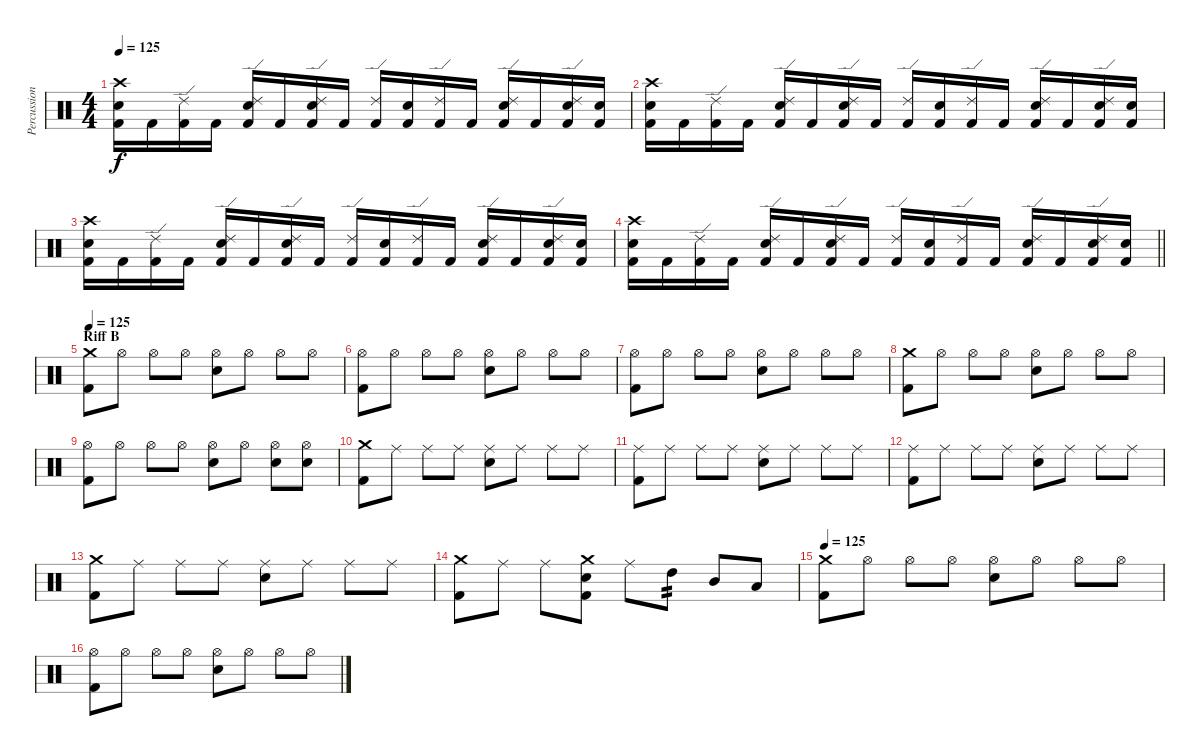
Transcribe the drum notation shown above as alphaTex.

\track ("Percussion" "Percussion") {instrument percussion}
\staff {score}
\articulation defaults
\ts (4 4)
\tempo 125
\clef neutral
\ks c
("Crash high (hit)" "Snare (hit) 2" "Kick (hit) 2").16{dy f} "Kick (hit) 2".16 ("Ride (edge) 2" "Kick (hit) 2").16 "Kick (hit) 2".16 ("Ride (edge) 2" "Snare (hit) 2" "Kick (hit) 2").16 "Kick (hit) 2".16 ("Ride (edge) 2" "Snare (hit) 2" "Kick (hit) 2").16 "Kick (hit) 2".16 ("Ride (edge) 2" "Kick (hit) 2").16 ("Snare (hit) 2" "Kick (hit) 2").16 ("Ride (edge) 2" "Kick (hit) 2").16 "Kick (hit) 2".16 ("Ride (edge) 2" "Snare (hit) 2" "Kick (hit) 2").16 "Kick (hit) 2".16 ("Ride (edge) 2" "Snare (hit) 2" "Kick (hit) 2").16 ("Snare (hit) 2" "Kick (hit) 2").16 |
("Crash high (hit)" "Snare (hit) 2" "Kick (hit) 2").16 "Kick (hit) 2".16 ("Ride (edge) 2" "Kick (hit) 2").16 "Kick (hit) 2".16 ("Ride (edge) 2" "Snare (hit) 2" "Kick (hit) 2").16 "Kick (hit) 2".16 ("Ride (edge) 2" "Snare (hit) 2" "Kick (hit) 2").16 "Kick (hit) 2".16 ("Ride (edge) 2" "Kick (hit) 2").16 ("Snare (hit) 2" "Kick (hit) 2").16 ("Ride (edge) 2" "Kick (hit) 2").16 "Kick (hit) 2".16 ("Ride (edge) 2" "Snare (hit) 2" "Kick (hit) 2").16 "Kick (hit) 2".16 ("Ride (edge) 2" "Snare (hit) 2" "Kick (hit) 2").16 ("Snare (hit) 2" "Kick (hit) 2").16 |
("Crash high (hit)" "Snare (hit) 2" "Kick (hit) 2").16 "Kick (hit) 2".16 ("Ride (edge) 2" "Kick (hit) 2").16 "Kick (hit) 2".16 ("Ride (edge) 2" "Snare (hit) 2" "Kick (hit) 2").16 "Kick (hit) 2".16 ("Ride (edge) 2" "Snare (hit) 2" "Kick (hit) 2").16 "Kick (hit) 2".16 ("Ride (edge) 2" "Kick (hit) 2").16 ("Snare (hit) 2" "Kick (hit) 2").16 ("Ride (edge) 2" "Kick (hit) 2").16 "Kick (hit) 2".16 ("Ride (edge) 2" "Snare (hit) 2" "Kick (hit) 2").16 "Kick (hit) 2".16 ("Ride (edge) 2" "Snare (hit) 2" "Kick (hit) 2").16 ("Snare (hit) 2" "Kick (hit) 2").16 |
\barLineRight lightlight
("Crash high (hit)" "Snare (hit) 2" "Kick (hit) 2").16 "Kick (hit) 2".16 ("Ride (edge) 2" "Kick (hit) 2").16 "Kick (hit) 2".16 ("Ride (edge) 2" "Snare (hit) 2" "Kick (hit) 2").16 "Kick (hit) 2".16 ("Ride (edge) 2" "Snare (hit) 2" "Kick (hit) 2").16 "Kick (hit) 2".16 ("Ride (edge) 2" "Kick (hit) 2").16 ("Snare (hit) 2" "Kick (hit) 2").16 ("Ride (edge) 2" "Kick (hit) 2").16 "Kick (hit) 2".16 ("Ride (edge) 2" "Snare (hit) 2" "Kick (hit) 2").16 "Kick (hit) 2".16 ("Ride (edge) 2" "Snare (hit) 2" "Kick (hit) 2").16 ("Snare (hit) 2" "Kick (hit) 2").16 |
\section ("" "Riff B")
\tempo 125
("Crash medium (hit)" "Kick (hit) 2").8 "Hi-Hat (open)".8 "Hi-Hat (open)".8 "Hi-Hat (open)".8 ("Hi-Hat (open)" "Snare (hit) 2").8 "Hi-Hat (open)".8 "Hi-Hat (open)".8 "Hi-Hat (open)".8 |
("Hi-Hat (open)" "Kick (hit) 2").8 "Hi-Hat (open)".8 "Hi-Hat (open)".8 "Hi-Hat (open)".8 ("Hi-Hat (open)" "Snare (hit) 2").8 "Hi-Hat (open)".8 "Hi-Hat (open)".8 "Hi-Hat (open)".8 |
("Hi-Hat (open)" "Kick (hit) 2").8 "Hi-Hat (open)".8 "Hi-Hat (open)".8 "Hi-Hat (open)".8 ("Hi-Hat (open)" "Snare (hit) 2").8 "Hi-Hat (open)".8 "Hi-Hat (open)".8 "Hi-Hat (open)".8 |
("Crash medium (hit)" "Kick (hit) 2").8 "Hi-Hat (open)".8 "Hi-Hat (open)".8 "Hi-Hat (open)".8 ("Hi-Hat (open)" "Snare (hit) 2").8 "Hi-Hat (open)".8 "Hi-Hat (open)".8 "Hi-Hat (open)".8 |
("Hi-Hat (open)" "Kick (hit) 2").8 "Hi-Hat (open)".8 "Hi-Hat (open)".8 "Hi-Hat (open)".8 ("Hi-Hat (open)" "Snare (hit) 2").8 "Hi-Hat (open)".8 ("Hi-Hat (open)" "Snare (hit) 2").8 ("Hi-Hat (open)" "Snare (hit) 2").8 |
("Crash medium (hit)" "Kick (hit) 2").8 "Ride (middle)".8 "Ride (middle)".8 "Ride (middle)".8 ("Ride (middle)" "Snare (hit) 2").8 "Ride (middle)".8 "Ride (middle)".8 "Ride (middle)".8 |
("Ride (middle)" "Kick (hit) 2").8 "Ride (middle)".8 "Ride (middle)".8 "Ride (middle)".8 ("Ride (middle)" "Snare (hit) 2").8 "Ride (middle)".8 "Ride (middle)".8 "Ride (middle)".8 |
("Ride (middle)" "Kick (hit) 2").8 "Ride (middle)".8 "Ride (middle)".8 "Ride (middle)".8 ("Ride (middle)" "Snare (hit) 2").8 "Ride (middle)".8 "Ride (middle)".8 "Ride (middle)".8 |
("Crash medium (hit)" "Kick (hit) 2").8 "Ride (middle)".8 "Ride (middle)".8 "Ride (middle)".8 ("Ride (middle)" "Snare (hit) 2").8 "Ride (middle)".8 "Ride (middle)".8 "Ride (middle)".8 |
("Crash medium (hit)" "Kick (hit) 2").8 "Ride (middle)".8 "Ride (middle)".8 ("Crash medium (hit)" "Snare (hit) 2" "Kick (hit) 2").8 "Ride (middle)".8 "High Tom (hit)".8{tp 2} "Mid Tom (hit)".8 "Low Tom (hit)".8 |
\tempo 125
("Crash medium (hit)" "Kick (hit) 2").8 "Hi-Hat (open)".8 "Hi-Hat (open)".8 "Hi-Hat (open)".8 ("Hi-Hat (open)" "Snare (hit) 2").8 "Hi-Hat (open)".8 "Hi-Hat (open)".8 "Hi-Hat (open)".8 |
("Hi-Hat (open)" "Kick (hit) 2").8 "Hi-Hat (open)".8 "Hi-Hat (open)".8 "Hi-Hat (open)".8 ("Hi-Hat (open)" "Snare (hit) 2").8 "Hi-Hat (open)".8 "Hi-Hat (open)".8 "Hi-Hat (open)".8
